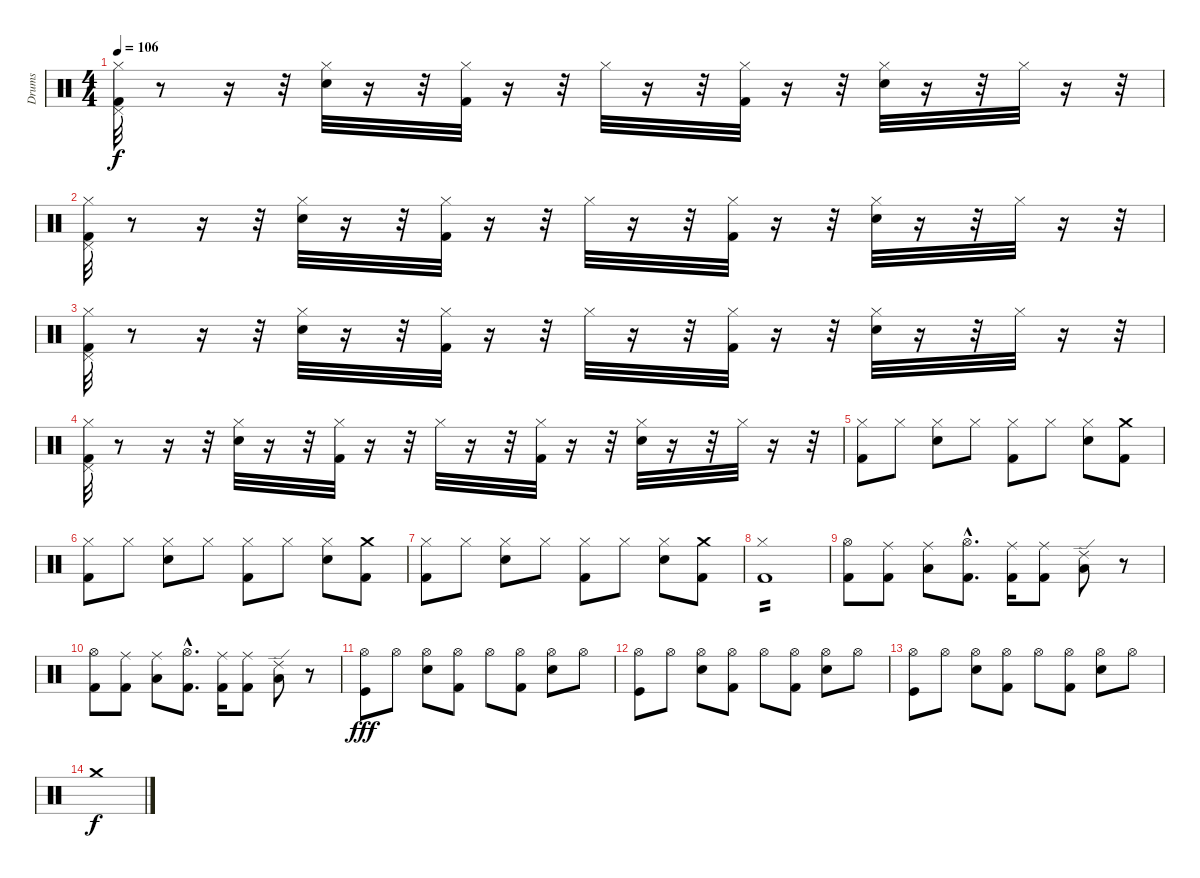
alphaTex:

\track ("Drums" "Drums") {instrument percussion}
\staff {score}
\articulation defaults
\ts (4 4)
\tempo 106
\clef neutral
\ks c
("Hi-Hat (closed)" "Pedal Hi-Hat (hit)" "Kick (hit) 2").32{dy f} r.8 r.16 r.32 ("Hi-Hat (closed)" "Electric Snare (hit)").32 r.16 r.32 ("Kick (hit) 2" "Hi-Hat (closed)").32 r.16 r.32 "Hi-Hat (closed)".32 r.16 r.32 ("Kick (hit) 2" "Hi-Hat (closed)").32 r.16 r.32 ("Hi-Hat (closed)" "Electric Snare (hit)").32 r.16 r.32 "Hi-Hat (closed)".32 r.16 r.32 |
("Hi-Hat (closed)" "Pedal Hi-Hat (hit)" "Kick (hit) 2").32 r.8 r.16 r.32 ("Hi-Hat (closed)" "Electric Snare (hit)").32 r.16 r.32 ("Kick (hit) 2" "Hi-Hat (closed)").32 r.16 r.32 "Hi-Hat (closed)".32 r.16 r.32 ("Kick (hit) 2" "Hi-Hat (closed)").32 r.16 r.32 ("Hi-Hat (closed)" "Electric Snare (hit)").32 r.16 r.32 "Hi-Hat (closed)".32 r.16 r.32 |
("Hi-Hat (closed)" "Pedal Hi-Hat (hit)" "Kick (hit) 2").32 r.8 r.16 r.32 ("Hi-Hat (closed)" "Electric Snare (hit)").32 r.16 r.32 ("Kick (hit) 2" "Hi-Hat (closed)").32 r.16 r.32 "Hi-Hat (closed)".32 r.16 r.32 ("Kick (hit) 2" "Hi-Hat (closed)").32 r.16 r.32 ("Hi-Hat (closed)" "Electric Snare (hit)").32 r.16 r.32 "Hi-Hat (closed)".32 r.16 r.32 |
("Hi-Hat (closed)" "Pedal Hi-Hat (hit)" "Kick (hit) 2").32 r.8 r.16 r.32 ("Hi-Hat (closed)" "Electric Snare (hit)").32 r.16 r.32 ("Kick (hit) 2" "Hi-Hat (closed)").32 r.16 r.32 "Hi-Hat (closed)".32 r.16 r.32 ("Kick (hit) 2" "Hi-Hat (closed)").32 r.16 r.32 ("Hi-Hat (closed)" "Electric Snare (hit)").32 r.16 r.32 "Hi-Hat (closed)".32 r.16 r.32 |
("Kick (hit) 2" "Hi-Hat (closed)").8 "Hi-Hat (closed)".8 ("Snare (hit) 2" "Hi-Hat (closed)").8 "Hi-Hat (closed)".8 ("Kick (hit) 2" "Hi-Hat (closed)").8 "Hi-Hat (closed)".8 ("Snare (hit) 2" "Hi-Hat (closed)").8 ("Crash medium (hit)" "Kick (hit) 2").8 |
("Kick (hit) 2" "Hi-Hat (closed)").8 "Hi-Hat (closed)".8 ("Snare (hit) 2" "Hi-Hat (closed)").8 "Hi-Hat (closed)".8 ("Kick (hit) 2" "Hi-Hat (closed)").8 "Hi-Hat (closed)".8 ("Snare (hit) 2" "Hi-Hat (closed)").8 ("Crash medium (hit)" "Kick (hit) 2").8 |
("Kick (hit) 2" "Hi-Hat (closed)").8 "Hi-Hat (closed)".8 ("Snare (hit) 2" "Hi-Hat (closed)").8 "Hi-Hat (closed)".8 ("Kick (hit) 2" "Hi-Hat (closed)").8 "Hi-Hat (closed)".8 ("Snare (hit) 2" "Hi-Hat (closed)").8 ("Crash medium (hit)" "Kick (hit) 2").8 |
("Kick (hit) 2" "Hi-Hat (closed)"{tr (42 16)}).1{tp 2} |
("Hi-Hat (open)" "Kick (hit) 2").8 ("Ride (middle)" "Kick (hit) 2").8 ("Ride (middle)" "Low Floor Tom (hit)").8 ("Hi-Hat (open)"{hac} "Kick (hit) 2"{hac}).8{d} ("Ride (middle)" "Kick (hit) 2").16 ("Ride (middle)" "Kick (hit) 2").8 ("Ride (edge) 2" "Low Floor Tom (hit)").8 r.8 |
("Hi-Hat (open)" "Kick (hit) 2").8 ("Ride (middle)" "Kick (hit) 2").8 ("Ride (middle)" "Low Floor Tom (hit)").8 ("Hi-Hat (open)"{hac} "Kick (hit) 2"{hac}).8{d} ("Ride (middle)" "Kick (hit) 2").16 ("Ride (middle)" "Kick (hit) 2").8 ("Ride (edge) 2" "Low Floor Tom (hit)").8 r.8 |
("Hi-Hat (open)" "Kick (hit)").8{dy fff} "Hi-Hat (open)".8 ("Hi-Hat (open)" "Snare (hit) 2").8 ("Hi-Hat (open)" "Kick (hit) 2").8 "Hi-Hat (open)".8 ("Hi-Hat (open)" "Kick (hit) 2").8 ("Hi-Hat (open)" "Snare (hit) 2").8 "Hi-Hat (open)".8 |
("Hi-Hat (open)" "Kick (hit)").8 "Hi-Hat (open)".8 ("Hi-Hat (open)" "Snare (hit) 2").8 ("Hi-Hat (open)" "Kick (hit) 2").8 "Hi-Hat (open)".8 ("Hi-Hat (open)" "Kick (hit) 2").8 ("Hi-Hat (open)" "Snare (hit) 2").8 "Hi-Hat (open)".8 |
("Hi-Hat (open)" "Kick (hit)").8 "Hi-Hat (open)".8 ("Hi-Hat (open)" "Snare (hit) 2").8 ("Hi-Hat (open)" "Kick (hit) 2").8 "Hi-Hat (open)".8 ("Hi-Hat (open)" "Kick (hit) 2").8 ("Hi-Hat (open)" "Snare (hit) 2").8 "Hi-Hat (open)".8 |
"Crash medium (hit)".1{dy f}
